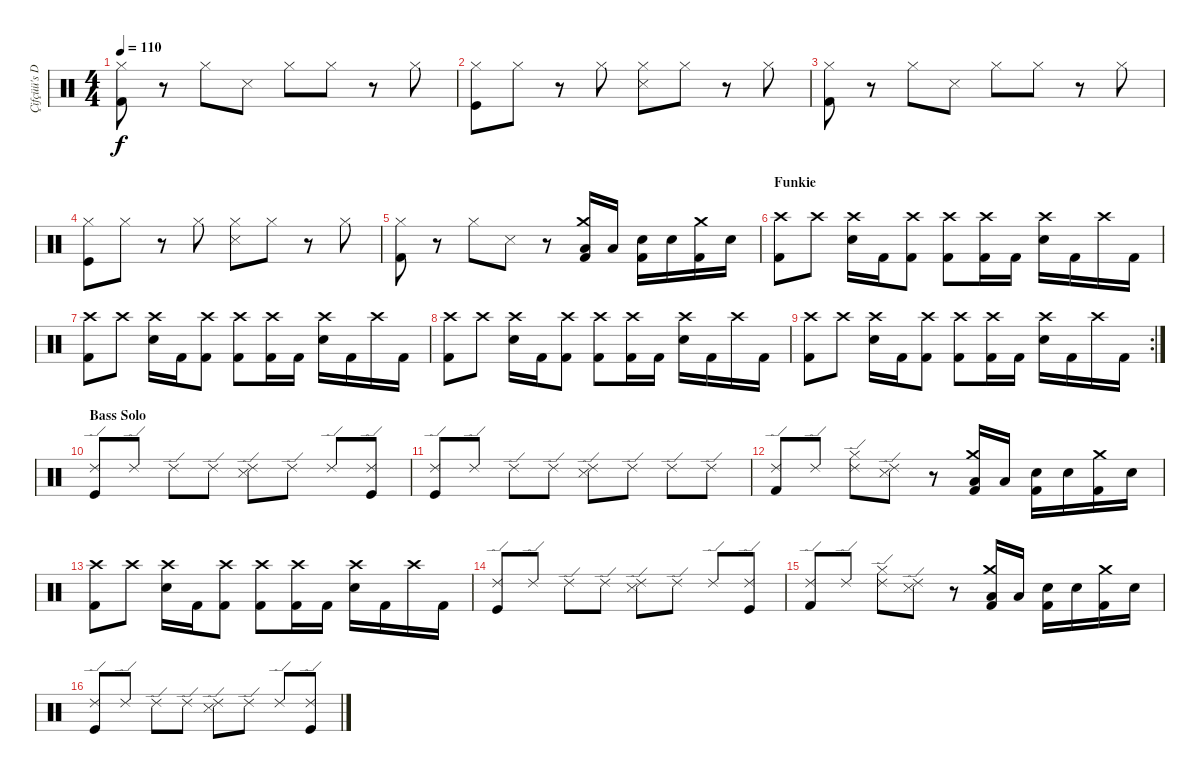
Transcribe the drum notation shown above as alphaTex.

\track ("Çifçüü's Drums" "Çifçüü's D") {instrument percussion}
\staff {score}
\articulation defaults
\ts (4 4)
\tempo 110
\clef neutral
\ks c
("Hi-Hat (closed)" "Kick (hit) 2").8{dy f} r.8 "Hi-Hat (closed)".8 "Snare (side stick) 3".8 "Hi-Hat (closed)".8 "Hi-Hat (closed)".8 r.8 "Hi-Hat (closed)".8 |
("Hi-Hat (closed)" "Kick (hit)").8 "Hi-Hat (closed)".8 r.8 "Hi-Hat (closed)".8 ("Hi-Hat (closed)" "Snare (side stick) 3").8 "Hi-Hat (closed)".8 r.8 "Hi-Hat (closed)".8 |
("Hi-Hat (closed)" "Kick (hit) 2").8 r.8 "Hi-Hat (closed)".8 "Snare (side stick) 3".8 "Hi-Hat (closed)".8 "Hi-Hat (closed)".8 r.8 "Hi-Hat (closed)".8 |
("Hi-Hat (closed)" "Kick (hit)").8 "Hi-Hat (closed)".8 r.8 "Hi-Hat (closed)".8 ("Hi-Hat (closed)" "Snare (side stick) 3").8 "Hi-Hat (closed)".8 r.8 "Hi-Hat (closed)".8 |
("Hi-Hat (closed)" "Kick (hit) 2").8 r.8 "Hi-Hat (closed)".8 "Snare (side stick) 3".8 r.8 ("Crash medium (hit)" "Low Tom (hit)" "Kick (hit) 2").16 "Low Tom (hit)".16 ("Electric Snare (hit)" "Kick (hit) 2").16 "Electric Snare (hit)".16 ("Crash medium (hit)" "Kick (hit) 2").16 "Electric Snare (hit)".16 |
\section ("" "Funkie")
("Crash high (hit)" "Kick (hit) 2").8 "Crash high (hit)".8 ("Crash high (hit)" "Snare (hit) 2").16 "Kick (hit) 2".16 ("Crash high (hit)" "Kick (hit) 2").8 ("Crash high (hit)" "Kick (hit) 2").8 ("Crash high (hit)" "Kick (hit) 2").16 "Kick (hit) 2".16 ("Crash high (hit)" "Snare (hit) 2").16 "Kick (hit) 2".16 "Crash high (hit)".16 "Kick (hit) 2".16 |
("Crash high (hit)" "Kick (hit) 2").8 "Crash high (hit)".8 ("Crash high (hit)" "Snare (hit) 2").16 "Kick (hit) 2".16 ("Crash high (hit)" "Kick (hit) 2").8 ("Crash high (hit)" "Kick (hit) 2").8 ("Crash high (hit)" "Kick (hit) 2").16 "Kick (hit) 2".16 ("Crash high (hit)" "Snare (hit) 2").16 "Kick (hit) 2".16 "Crash high (hit)".16 "Kick (hit) 2".16 |
("Crash high (hit)" "Kick (hit) 2").8 "Crash high (hit)".8 ("Crash high (hit)" "Snare (hit) 2").16 "Kick (hit) 2".16 ("Crash high (hit)" "Kick (hit) 2").8 ("Crash high (hit)" "Kick (hit) 2").8 ("Crash high (hit)" "Kick (hit) 2").16 "Kick (hit) 2".16 ("Crash high (hit)" "Snare (hit) 2").16 "Kick (hit) 2".16 "Crash high (hit)".16 "Kick (hit) 2".16 |
\rc 2
("Crash high (hit)" "Kick (hit) 2").8 "Crash high (hit)".8 ("Crash high (hit)" "Snare (hit) 2").16 "Kick (hit) 2".16 ("Crash high (hit)" "Kick (hit) 2").8 ("Crash high (hit)" "Kick (hit) 2").8 ("Crash high (hit)" "Kick (hit) 2").16 "Kick (hit) 2".16 ("Crash high (hit)" "Snare (hit) 2").16 "Kick (hit) 2".16 "Crash high (hit)".16 "Kick (hit) 2".16 |
\section ("" "Bass Solo")
("Ride (edge) 2" "Kick (hit)").8 "Ride (edge) 2".8 "Ride (edge) 2".8 "Ride (edge) 2".8 ("Ride (edge) 2" "Snare (side stick) 3").8 "Ride (edge) 2".8 "Ride (edge) 2".8 ("Ride (edge) 2" "Kick (hit)").8 |
("Ride (edge) 2" "Kick (hit)").8 "Ride (edge) 2".8 "Ride (edge) 2".8 "Ride (edge) 2".8 ("Ride (edge) 2" "Snare (side stick) 3").8 "Ride (edge) 2".8 "Ride (edge) 2".8 "Ride (edge) 2".8 |
("Ride (edge) 2" "Kick (hit) 2").8 "Ride (edge) 2".8 ("Ride (edge) 2" "Hi-Hat (closed)").8 ("Ride (edge) 2" "Snare (side stick) 3").8 r.8 ("Crash medium (hit)" "Low Tom (hit)" "Kick (hit) 2").16 "Low Tom (hit)".16 ("Electric Snare (hit)" "Kick (hit) 2").16 "Electric Snare (hit)".16 ("Crash medium (hit)" "Kick (hit) 2").16 "Electric Snare (hit)".16 |
("Crash high (hit)" "Kick (hit) 2").8 "Crash high (hit)".8 ("Crash high (hit)" "Snare (hit) 2").16 "Kick (hit) 2".16 ("Crash high (hit)" "Kick (hit) 2").8 ("Crash high (hit)" "Kick (hit) 2").8 ("Crash high (hit)" "Kick (hit) 2").16 "Kick (hit) 2".16 ("Crash high (hit)" "Snare (hit) 2").16 "Kick (hit) 2".16 "Crash high (hit)".16 "Kick (hit) 2".16 |
("Ride (edge) 2" "Kick (hit)").8 "Ride (edge) 2".8 "Ride (edge) 2".8 "Ride (edge) 2".8 ("Ride (edge) 2" "Snare (side stick) 3").8 "Ride (edge) 2".8 "Ride (edge) 2".8 ("Ride (edge) 2" "Kick (hit)").8 |
("Ride (edge) 2" "Kick (hit) 2").8 "Ride (edge) 2".8 ("Ride (edge) 2" "Hi-Hat (closed)").8 ("Ride (edge) 2" "Snare (side stick) 3").8 r.8 ("Crash medium (hit)" "Low Tom (hit)" "Kick (hit) 2").16 "Low Tom (hit)".16 ("Electric Snare (hit)" "Kick (hit) 2").16 "Electric Snare (hit)".16 ("Crash medium (hit)" "Kick (hit) 2").16 "Electric Snare (hit)".16 |
("Ride (edge) 2" "Kick (hit)").8 "Ride (edge) 2".8 "Ride (edge) 2".8 "Ride (edge) 2".8 ("Ride (edge) 2" "Snare (side stick) 3").8 "Ride (edge) 2".8 "Ride (edge) 2".8 ("Ride (edge) 2" "Kick (hit)").8
